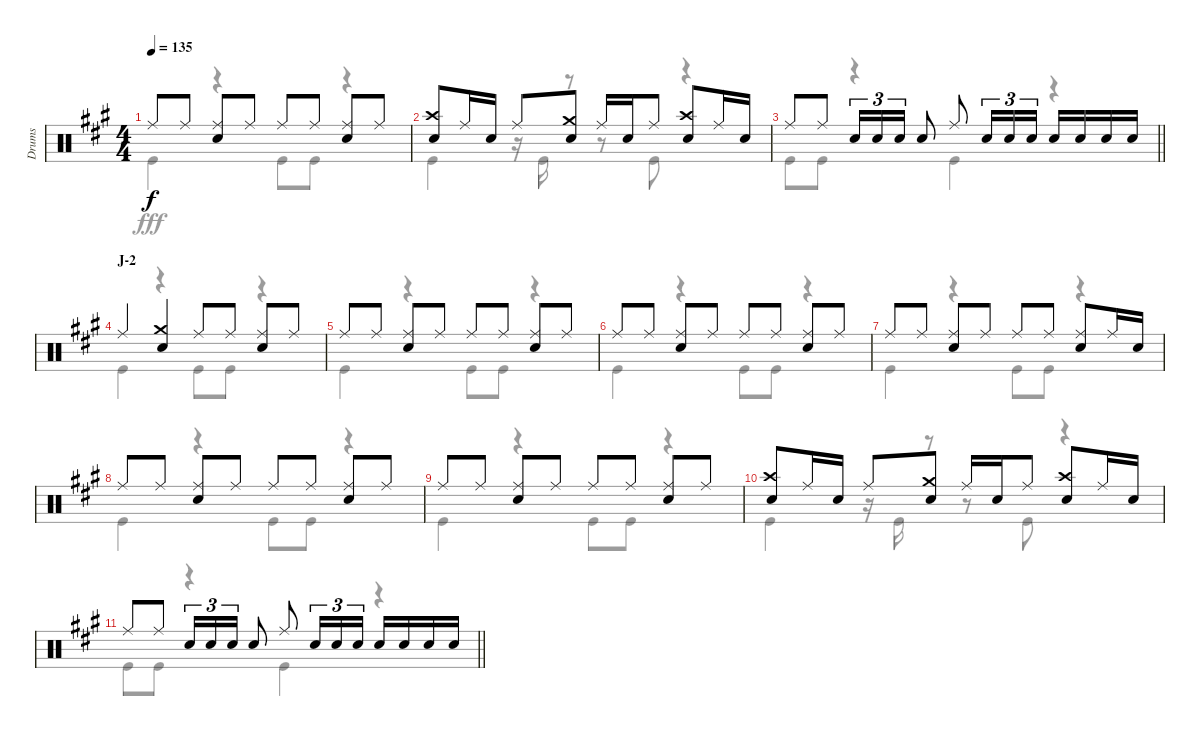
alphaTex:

\track ("Drums" "Drums") {instrument percussion}
\staff {score}
\articulation defaults
\voice
\ts (4 4)
\tempo 135
\clef neutral
\ks a "Ride (middle)".8{dy f} "Ride (middle)".8
("Ride (middle)" "Snare (hit) 2").8 "Ride (middle)".8 "Ride (middle)".8 "Ride (middle)".8 ("Ride (middle)" "Snare (hit) 2").8 "Ride (middle)".8 |
("Crash high (hit)" "Snare (hit) 2").8 "Ride (middle)".16 "Snare (hit) 2".16 "Ride (middle)".8 ("Crash medium (hit)" "Snare (hit) 2").8 "Ride (middle)".16 "Snare (hit) 2".16 "Ride (middle)".8 ("Crash high (hit)" "Snare (hit) 2").8 "Ride (middle)".16 "Snare (hit) 2".16 |
\barLineRight lightlight "Ride (middle)".8 "Ride (middle)".8 "Snare (hit) 2".16{tu (3 2)} "Snare (hit) 2".16{tu (3 2)} "Snare (hit) 2".16{tu (3 2)} "Snare (hit) 2".8 "Ride (middle)".8 "Snare (hit) 2".16{tu (3 2)} "Snare (hit) 2".16{tu (3 2)} "Snare (hit) 2".16{tu (3 2)} "Snare (hit) 2".16 "Snare (hit) 2".16 "Snare (hit) 2".16 "Snare (hit) 2".16
|
\section ("" "J-2")
"Ride (middle)".4 ("Crash medium (hit)" "Snare (hit) 2").4 "Ride (middle)".8 "Ride (middle)".8 ("Ride (middle)" "Snare (hit) 2").8 "Ride (middle)".8 |
"Ride (middle)".8 "Ride (middle)".8 ("Ride (middle)" "Snare (hit) 2").8 "Ride (middle)".8 "Ride (middle)".8 "Ride (middle)".8 ("Ride (middle)" "Snare (hit) 2").8 "Ride (middle)".8 |
"Ride (middle)".8 "Ride (middle)".8 ("Ride (middle)" "Snare (hit) 2").8 "Ride (middle)".8 "Ride (middle)".8 "Ride (middle)".8 ("Ride (middle)" "Snare (hit) 2").8 "Ride (middle)".8 |
"Ride (middle)".8 "Ride (middle)".8 ("Ride (middle)" "Snare (hit) 2").8 "Ride (middle)".8 "Ride (middle)".8 "Ride (middle)".8 ("Ride (middle)" "Snare (hit) 2").8 "Ride (middle)".16 "Snare (hit) 2".16 |
"Ride (middle)".8 "Ride (middle)".8 ("Ride (middle)" "Snare (hit) 2").8 "Ride (middle)".8 "Ride (middle)".8 "Ride (middle)".8 ("Ride (middle)" "Snare (hit) 2").8 "Ride (middle)".8 |
"Ride (middle)".8 "Ride (middle)".8 ("Ride (middle)" "Snare (hit) 2").8 "Ride (middle)".8 "Ride (middle)".8 "Ride (middle)".8 ("Ride (middle)" "Snare (hit) 2").8 "Ride (middle)".8 |
("Crash high (hit)" "Snare (hit) 2").8 "Ride (middle)".16 "Snare (hit) 2".16 "Ride (middle)".8 ("Crash medium (hit)" "Snare (hit) 2").8 "Ride (middle)".16 "Snare (hit) 2".16 "Ride (middle)".8 ("Crash high (hit)" "Snare (hit) 2").8 "Ride (middle)".16 "Snare (hit) 2".16 |
\barLineRight lightlight "Ride (middle)".8 "Ride (middle)".8 "Snare (hit) 2".16{tu (3 2)} "Snare (hit) 2".16{tu (3 2)} "Snare (hit) 2".16{tu (3 2)} "Snare (hit) 2".8 "Ride (middle)".8 "Snare (hit) 2".16{tu (3 2)} "Snare (hit) 2".16{tu (3 2)} "Snare (hit) 2".16{tu (3 2)} "Snare (hit) 2".16 "Snare (hit) 2".16 "Snare (hit) 2".16 "Snare (hit) 2".16
\voice
\clef neutral
\ottava regular
\simile none
\ks a "Kick (hit)".4{dy fff}
r.4 "Kick (hit)".8 "Kick (hit)".8 r.4 |
"Kick (hit)".4 r.16 "Kick (hit)".16 r.8 r.8 "Kick (hit)".8 r.4 |
\barLineRight lightlight "Kick (hit)".8 "Kick (hit)".8
r.4 "Kick (hit)".4 r.4 |
"Kick (hit)".4 r.4 "Kick (hit)".8 "Kick (hit)".8 r.4 |
"Kick (hit)".4 r.4 "Kick (hit)".8 "Kick (hit)".8 r.4 |
"Kick (hit)".4 r.4 "Kick (hit)".8 "Kick (hit)".8 r.4 |
"Kick (hit)".4 r.4 "Kick (hit)".8 "Kick (hit)".8 r.4 |
"Kick (hit)".4 r.4 "Kick (hit)".8 "Kick (hit)".8 r.4 |
"Kick (hit)".4 r.4 "Kick (hit)".8 "Kick (hit)".8 r.4 |
"Kick (hit)".4 r.16 "Kick (hit)".16 r.8 r.8 "Kick (hit)".8 r.4 |
\barLineRight lightlight "Kick (hit)".8 "Kick (hit)".8
r.4 "Kick (hit)".4 r.4
